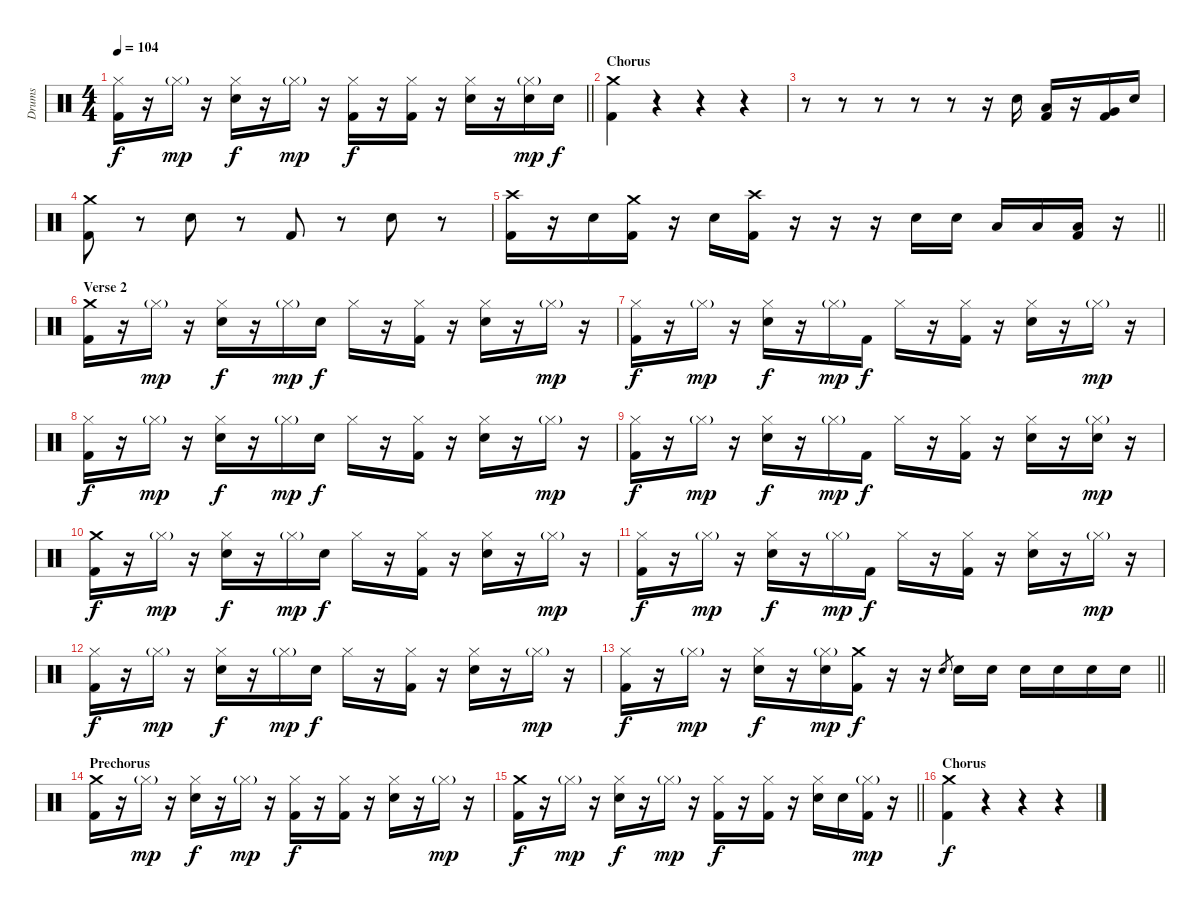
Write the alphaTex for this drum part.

\track ("Drums" "Drums") {instrument percussion}
\staff {score}
\articulation defaults
\ts (4 4)
\tempo 104
\clef neutral
\barLineRight lightlight
\ks c
("Hi-Hat (closed)" "Kick (hit) 2").16{dy f} r.16 "Hi-Hat (closed)"{g}.16{dy mp} r.16 ("Hi-Hat (closed)" "Snare (hit) 2").16{dy f} r.16 "Hi-Hat (closed)"{g}.16{dy mp} r.16 ("Hi-Hat (closed)" "Kick (hit) 2").16{dy f} r.16 ("Hi-Hat (closed)" "Kick (hit) 2").16 r.16 ("Hi-Hat (closed)" "Snare (hit) 2").16 r.16 ("Hi-Hat (closed)"{g} "Snare (hit) 2").16{dy mp} "Snare (hit) 2".16{dy f} |
\section ("" "Chorus")
("Crash medium (hit)" "Kick (hit) 2").4 r.4 r.4 r.4 |
r.8 r.8 r.8 r.8 r.8 r.16 "Snare (hit) 2".16 ("Low Tom (hit)" "Kick (hit) 2").16 r.16 ("Very Low Tom (hit)" "Kick (hit) 2").16 "Snare (hit) 2".16 |
("Crash medium (hit)" "Kick (hit) 2").8 r.8 "Snare (hit) 2".8 r.8 "Kick (hit) 2".8 r.8 "Snare (hit) 2".8 r.8 |
\barLineRight lightlight
("Crash high (hit)" "Kick (hit) 2").16 r.16 "Snare (hit) 2".16 ("Crash medium (hit)" "Kick (hit) 2").16 r.16 "Snare (hit) 2".16 ("Crash high (hit)" "Kick (hit) 2").16 r.16 r.16 r.16 "Snare (hit) 2".16 "Snare (hit) 2".16 "Low Tom (hit)".16 "Low Tom (hit)".16 ("Low Floor Tom (hit)" "Kick (hit) 2").16 r.16 |
\section ("" "Verse 2")
("Crash medium (hit)" "Kick (hit) 2").16 r.16 "Hi-Hat (closed)"{g}.16{dy mp} r.16 ("Hi-Hat (closed)" "Snare (hit) 2").16{dy f} r.16 "Hi-Hat (closed)"{g}.16{dy mp} "Snare (hit) 2".16{dy f} "Hi-Hat (closed)".16 r.16 ("Hi-Hat (closed)" "Kick (hit) 2").16 r.16 ("Hi-Hat (closed)" "Snare (hit) 2").16 r.16 "Hi-Hat (closed)"{g}.16{dy mp} r.16 |
("Hi-Hat (closed)" "Kick (hit) 2").16{dy f} r.16 "Hi-Hat (closed)"{g}.16{dy mp} r.16 ("Hi-Hat (closed)" "Snare (hit) 2").16{dy f} r.16 "Hi-Hat (closed)"{g}.16{dy mp} "Kick (hit) 2".16{dy f} "Hi-Hat (closed)".16 r.16 ("Hi-Hat (closed)" "Kick (hit) 2").16 r.16 ("Hi-Hat (closed)" "Snare (hit) 2").16 r.16 "Hi-Hat (closed)"{g}.16{dy mp} r.16 |
("Hi-Hat (closed)" "Kick (hit) 2").16{dy f} r.16 "Hi-Hat (closed)"{g}.16{dy mp} r.16 ("Hi-Hat (closed)" "Snare (hit) 2").16{dy f} r.16 "Hi-Hat (closed)"{g}.16{dy mp} "Snare (hit) 2".16{dy f} "Hi-Hat (closed)".16 r.16 ("Hi-Hat (closed)" "Kick (hit) 2").16 r.16 ("Hi-Hat (closed)" "Snare (hit) 2").16 r.16 "Hi-Hat (closed)"{g}.16{dy mp} r.16 |
("Hi-Hat (closed)" "Kick (hit) 2").16{dy f} r.16 "Hi-Hat (closed)"{g}.16{dy mp} r.16 ("Hi-Hat (closed)" "Snare (hit) 2").16{dy f} r.16 "Hi-Hat (closed)"{g}.16{dy mp} "Kick (hit) 2".16{dy f} "Hi-Hat (closed)".16 r.16 ("Hi-Hat (closed)" "Kick (hit) 2").16 r.16 ("Hi-Hat (closed)" "Snare (hit) 2").16 r.16 ("Hi-Hat (closed)"{g} "Snare (hit) 2").16{dy mp} r.16 |
("Crash medium (hit)" "Kick (hit) 2").16{dy f} r.16 "Hi-Hat (closed)"{g}.16{dy mp} r.16 ("Hi-Hat (closed)" "Snare (hit) 2").16{dy f} r.16 "Hi-Hat (closed)"{g}.16{dy mp} "Snare (hit) 2".16{dy f} "Hi-Hat (closed)".16 r.16 ("Hi-Hat (closed)" "Kick (hit) 2").16 r.16 ("Hi-Hat (closed)" "Snare (hit) 2").16 r.16 "Hi-Hat (closed)"{g}.16{dy mp} r.16 |
("Hi-Hat (closed)" "Kick (hit) 2").16{dy f} r.16 "Hi-Hat (closed)"{g}.16{dy mp} r.16 ("Hi-Hat (closed)" "Snare (hit) 2").16{dy f} r.16 "Hi-Hat (closed)"{g}.16{dy mp} "Kick (hit) 2".16{dy f} "Hi-Hat (closed)".16 r.16 ("Hi-Hat (closed)" "Kick (hit) 2").16 r.16 ("Hi-Hat (closed)" "Snare (hit) 2").16 r.16 "Hi-Hat (closed)"{g}.16{dy mp} r.16 |
("Hi-Hat (closed)" "Kick (hit) 2").16{dy f} r.16 "Hi-Hat (closed)"{g}.16{dy mp} r.16 ("Hi-Hat (closed)" "Snare (hit) 2").16{dy f} r.16 "Hi-Hat (closed)"{g}.16{dy mp} "Snare (hit) 2".16{dy f} "Hi-Hat (closed)".16 r.16 ("Hi-Hat (closed)" "Kick (hit) 2").16 r.16 ("Hi-Hat (closed)" "Snare (hit) 2").16 r.16 "Hi-Hat (closed)"{g}.16{dy mp} r.16 |
\barLineRight lightlight
("Hi-Hat (closed)" "Kick (hit) 2").16{dy f} r.16 "Hi-Hat (closed)"{g}.16{dy mp} r.16 ("Hi-Hat (closed)" "Snare (hit) 2").16{dy f} r.16 ("Hi-Hat (closed)"{g} "Snare (hit) 2").16{dy mp} ("Crash medium (hit)" "Kick (hit) 2").16{dy f} r.16 r.16 "Snare (hit) 2".8{gr} "Snare (hit) 2".16 "Snare (hit) 2".16 "Snare (hit) 2".16 "Snare (hit) 2".16 "Snare (hit) 2".16 "Snare (hit) 2".16 |
\section ("" "Prechorus")
("Crash medium (hit)" "Kick (hit) 2").16 r.16 "Hi-Hat (closed)"{g}.16{dy mp} r.16 ("Hi-Hat (closed)" "Snare (hit) 2").16{dy f} r.16 "Hi-Hat (closed)"{g}.16{dy mp} r.16 ("Hi-Hat (closed)" "Kick (hit) 2").16{dy f} r.16 ("Hi-Hat (closed)" "Kick (hit) 2").16 r.16 ("Hi-Hat (closed)" "Snare (hit) 2").16 r.16 "Hi-Hat (closed)"{g}.16{dy mp} r.16 |
\barLineRight lightlight
("Crash medium (hit)" "Kick (hit) 2").16{dy f} r.16 "Hi-Hat (closed)"{g}.16{dy mp} r.16 ("Hi-Hat (closed)" "Snare (hit) 2").16{dy f} r.16 "Hi-Hat (closed)"{g}.16{dy mp} r.16 ("Hi-Hat (closed)" "Kick (hit) 2").16{dy f} r.16 ("Hi-Hat (closed)" "Kick (hit) 2").16 r.16 ("Hi-Hat (closed)" "Snare (hit) 2").16 "Snare (hit) 2".16 ("Hi-Hat (closed)"{g} "Kick (hit) 2").16{dy mp} r.16 |
\section ("" "Chorus")
("Crash medium (hit)" "Kick (hit) 2").4{dy f} r.4 r.4 r.4
